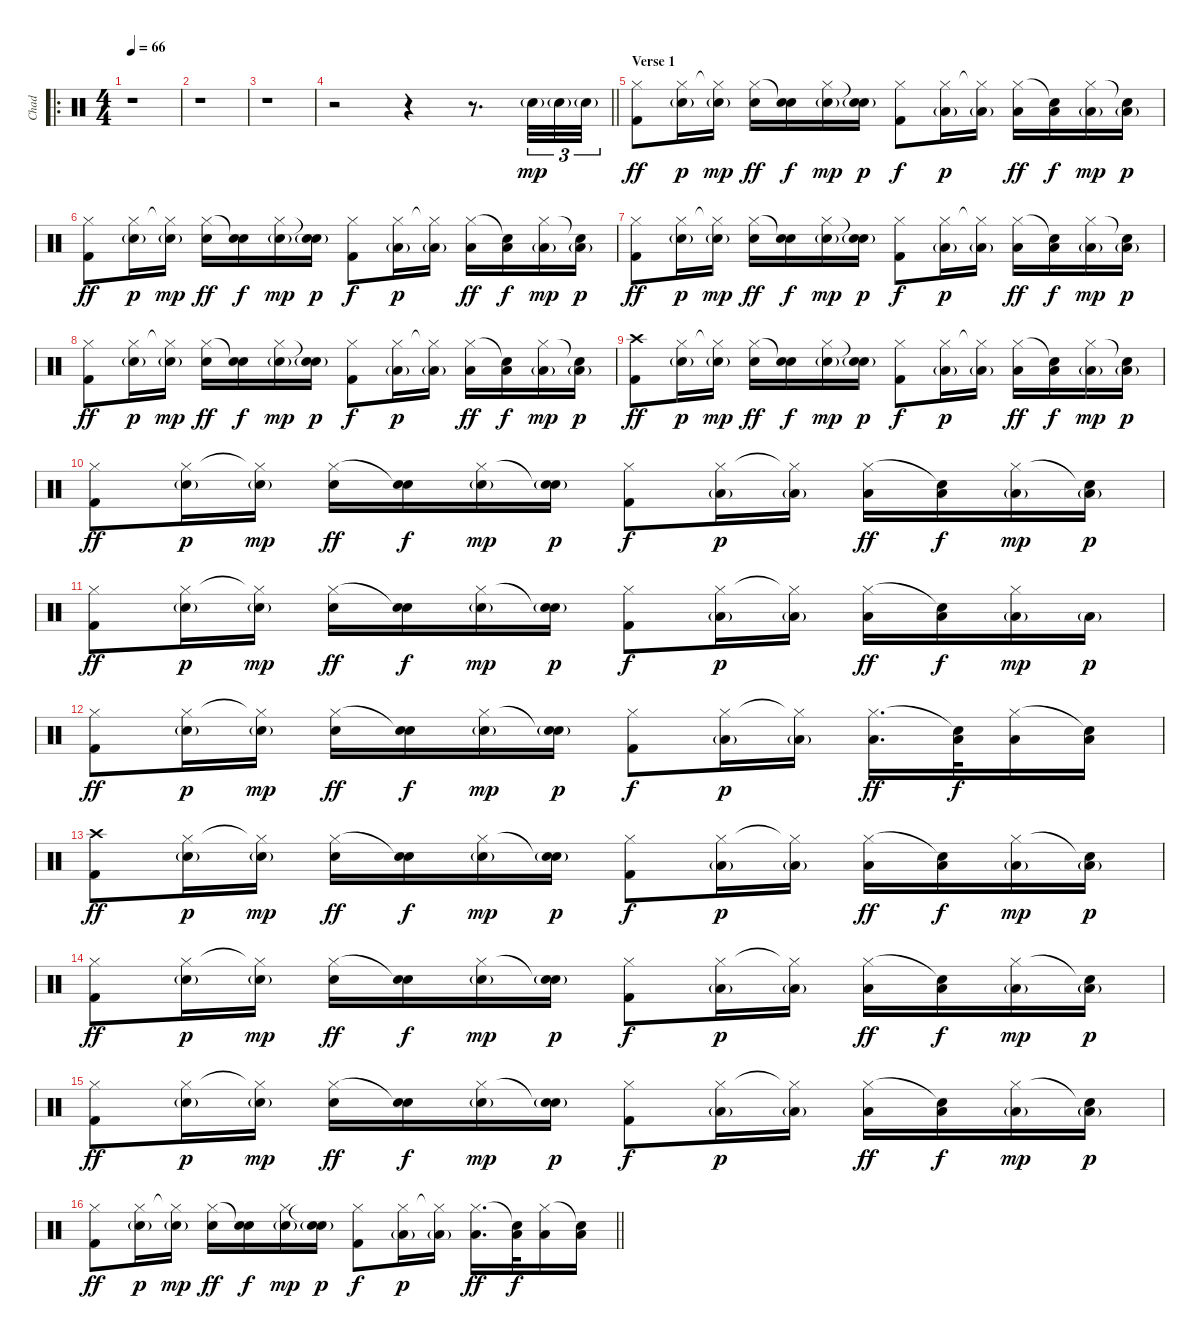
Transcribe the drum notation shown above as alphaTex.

\track ("Chad" "Chad") {instrument percussion}
\staff {score}
\articulation defaults
\ro
\ts (4 4)
\tempo 66
\clef neutral
\ks c
r.1{dy mp} |
r.1 |
r.1 |
\barLineRight lightlight
r.2 r.4 r.8{d} "Snare (hit) 2"{g}.32{tu (3 2)} "Snare (hit) 2"{g}.32{tu (3 2)} "Snare (hit) 2"{g}.32{tu (3 2)} |
\section ("" "Verse 1")
("Hi-Hat (closed)" "Kick (hit) 2").8{dy ff} ("Hi-Hat (closed)" "Snare (hit) 2"{g}).16{dy p} ("Hi-Hat (closed)"{t} "Snare (hit) 2"{g}).16{dy mp} ("Hi-Hat (closed)" "Snare (hit) 2").16{dy ff} ("Snare (hit)"{t} "Snare (hit) 2").16{dy f} ("Hi-Hat (closed)" "Snare (hit) 2"{g}).16{dy mp} ("Snare (hit)"{t} "Snare (hit) 2"{g}).16{dy p} ("Hi-Hat (closed)" "Kick (hit) 2").8{dy f} ("Hi-Hat (closed)" "Low Floor Tom (hit)"{g}).16{dy p} ("Hi-Hat (closed)"{t} "Low Floor Tom (hit)"{g}).16 ("Hi-Hat (closed)" "Low Floor Tom (hit)").16{dy ff} ("Snare (hit)"{t} "Low Floor Tom (hit)").16{dy f} ("Hi-Hat (closed)" "Low Floor Tom (hit)"{g}).16{dy mp} ("Snare (hit)"{t} "Low Floor Tom (hit)"{g}).16{dy p} |
("Hi-Hat (closed)" "Kick (hit) 2").8{dy ff} ("Hi-Hat (closed)" "Snare (hit) 2"{g}).16{dy p} ("Hi-Hat (closed)"{t} "Snare (hit) 2"{g}).16{dy mp} ("Hi-Hat (closed)" "Snare (hit) 2").16{dy ff} ("Snare (hit)"{t} "Snare (hit) 2").16{dy f} ("Hi-Hat (closed)" "Snare (hit) 2"{g}).16{dy mp} ("Snare (hit)"{t} "Snare (hit) 2"{g}).16{dy p} ("Hi-Hat (closed)" "Kick (hit) 2").8{dy f} ("Hi-Hat (closed)" "Low Floor Tom (hit)"{g}).16{dy p} ("Hi-Hat (closed)"{t} "Low Floor Tom (hit)"{g}).16 ("Hi-Hat (closed)" "Low Floor Tom (hit)").16{dy ff} ("Snare (hit)"{t} "Low Floor Tom (hit)").16{dy f} ("Hi-Hat (closed)" "Low Floor Tom (hit)"{g}).16{dy mp} ("Snare (hit)"{t} "Low Floor Tom (hit)"{g}).16{dy p} |
("Hi-Hat (closed)" "Kick (hit) 2").8{dy ff} ("Hi-Hat (closed)" "Snare (hit) 2"{g}).16{dy p} ("Hi-Hat (closed)"{t} "Snare (hit) 2"{g}).16{dy mp} ("Hi-Hat (closed)" "Snare (hit) 2").16{dy ff} ("Snare (hit)"{t} "Snare (hit) 2").16{dy f} ("Hi-Hat (closed)" "Snare (hit) 2"{g}).16{dy mp} ("Snare (hit)"{t} "Snare (hit) 2"{g}).16{dy p} ("Hi-Hat (closed)" "Kick (hit) 2").8{dy f} ("Hi-Hat (closed)" "Low Floor Tom (hit)"{g}).16{dy p} ("Hi-Hat (closed)"{t} "Low Floor Tom (hit)"{g}).16 ("Hi-Hat (closed)" "Low Floor Tom (hit)").16{dy ff} ("Snare (hit)"{t} "Low Floor Tom (hit)").16{dy f} ("Hi-Hat (closed)" "Low Floor Tom (hit)"{g}).16{dy mp} ("Snare (hit)"{t} "Low Floor Tom (hit)"{g}).16{dy p} |
("Hi-Hat (closed)" "Kick (hit) 2").8{dy ff} ("Hi-Hat (closed)" "Snare (hit) 2"{g}).16{dy p} ("Hi-Hat (closed)"{t} "Snare (hit) 2"{g}).16{dy mp} ("Hi-Hat (closed)" "Snare (hit) 2").16{dy ff} ("Snare (hit)"{t} "Snare (hit) 2").16{dy f} ("Hi-Hat (closed)" "Snare (hit) 2"{g}).16{dy mp} ("Snare (hit)"{t} "Snare (hit) 2"{g}).16{dy p} ("Hi-Hat (closed)" "Kick (hit) 2").8{dy f} ("Hi-Hat (closed)" "Low Floor Tom (hit)"{g}).16{dy p} ("Hi-Hat (closed)"{t} "Low Floor Tom (hit)"{g}).16 ("Hi-Hat (closed)" "Low Floor Tom (hit)").16{dy ff} ("Snare (hit)"{t} "Low Floor Tom (hit)").16{dy f} ("Hi-Hat (closed)" "Low Floor Tom (hit)"{g}).16{dy mp} ("Snare (hit)"{t} "Low Floor Tom (hit)"{g}).16{dy p} |
("Crash high (hit)" "Kick (hit) 2").8{dy ff} ("Hi-Hat (closed)" "Snare (hit) 2"{g}).16{dy p} ("Hi-Hat (closed)"{t} "Snare (hit) 2"{g}).16{dy mp} ("Hi-Hat (closed)" "Snare (hit) 2").16{dy ff} ("Snare (hit)"{t} "Snare (hit) 2").16{dy f} ("Hi-Hat (closed)" "Snare (hit) 2"{g}).16{dy mp} ("Snare (hit)"{t} "Snare (hit) 2"{g}).16{dy p} ("Hi-Hat (closed)" "Kick (hit) 2").8{dy f} ("Hi-Hat (closed)" "Low Floor Tom (hit)"{g}).16{dy p} ("Hi-Hat (closed)"{t} "Low Floor Tom (hit)"{g}).16 ("Hi-Hat (closed)" "Low Floor Tom (hit)").16{dy ff} ("Snare (hit)"{t} "Low Floor Tom (hit)").16{dy f} ("Hi-Hat (closed)" "Low Floor Tom (hit)"{g}).16{dy mp} ("Snare (hit)"{t} "Low Floor Tom (hit)"{g}).16{dy p} |
("Hi-Hat (closed)" "Kick (hit) 2").8{dy ff} ("Hi-Hat (closed)" "Snare (hit) 2"{g}).16{dy p} ("Hi-Hat (closed)"{t} "Snare (hit) 2"{g}).16{dy mp} ("Hi-Hat (closed)" "Snare (hit) 2").16{dy ff} ("Snare (hit)"{t} "Snare (hit) 2").16{dy f} ("Hi-Hat (closed)" "Snare (hit) 2"{g}).16{dy mp} ("Snare (hit)"{t} "Snare (hit) 2"{g}).16{dy p} ("Hi-Hat (closed)" "Kick (hit) 2").8{dy f} ("Hi-Hat (closed)" "Low Floor Tom (hit)"{g}).16{dy p} ("Hi-Hat (closed)"{t} "Low Floor Tom (hit)"{g}).16 ("Hi-Hat (closed)" "Low Floor Tom (hit)").16{dy ff} ("Snare (hit)"{t} "Low Floor Tom (hit)").16{dy f} ("Hi-Hat (closed)" "Low Floor Tom (hit)"{g}).16{dy mp} ("Snare (hit)"{t} "Low Floor Tom (hit)"{g}).16{dy p} |
("Hi-Hat (closed)" "Kick (hit) 2").8{dy ff} ("Hi-Hat (closed)" "Snare (hit) 2"{g}).16{dy p} ("Hi-Hat (closed)"{t} "Snare (hit) 2"{g}).16{dy mp} ("Hi-Hat (closed)" "Snare (hit) 2").16{dy ff} ("Snare (hit)"{t} "Snare (hit) 2").16{dy f} ("Hi-Hat (closed)" "Snare (hit) 2"{g}).16{dy mp} ("Snare (hit)"{t} "Snare (hit) 2"{g}).16{dy p} ("Hi-Hat (closed)" "Kick (hit) 2").8{dy f} ("Hi-Hat (closed)" "Low Floor Tom (hit)"{g}).16{dy p} ("Hi-Hat (closed)"{t} "Low Floor Tom (hit)"{g}).16 ("Hi-Hat (closed)" "Low Floor Tom (hit)").16{dy ff} ("Snare (hit)"{t} "Low Floor Tom (hit)").16{dy f} ("Hi-Hat (closed)" "Low Floor Tom (hit)"{g}).16{dy mp} "Low Floor Tom (hit)"{g}.16{dy p} |
("Hi-Hat (closed)" "Kick (hit) 2").8{dy ff} ("Hi-Hat (closed)" "Snare (hit) 2"{g}).16{dy p} ("Hi-Hat (closed)"{t} "Snare (hit) 2"{g}).16{dy mp} ("Hi-Hat (closed)" "Snare (hit) 2").16{dy ff} ("Snare (hit)"{t} "Snare (hit) 2").16{dy f} ("Hi-Hat (closed)" "Snare (hit) 2"{g}).16{dy mp} ("Snare (hit)"{t} "Snare (hit) 2"{g}).16{dy p} ("Hi-Hat (closed)" "Kick (hit) 2").8{dy f} ("Hi-Hat (closed)" "Low Floor Tom (hit)"{g}).16{dy p} ("Hi-Hat (closed)"{t} "Low Floor Tom (hit)"{g}).16 ("Hi-Hat (closed)" "Low Floor Tom (hit)").16{d dy ff} ("Snare (hit)"{t} "Low Floor Tom (hit)").32{dy f} ("Hi-Hat (closed)" "Low Floor Tom (hit)").16 ("Snare (hit)"{t} "Low Floor Tom (hit)").16 |
("Crash high (hit)" "Kick (hit) 2").8{dy ff} ("Hi-Hat (closed)" "Snare (hit) 2"{g}).16{dy p} ("Hi-Hat (closed)"{t} "Snare (hit) 2"{g}).16{dy mp} ("Hi-Hat (closed)" "Snare (hit) 2").16{dy ff} ("Snare (hit)"{t} "Snare (hit) 2").16{dy f} ("Hi-Hat (closed)" "Snare (hit) 2"{g}).16{dy mp} ("Snare (hit)"{t} "Snare (hit) 2"{g}).16{dy p} ("Hi-Hat (closed)" "Kick (hit) 2").8{dy f} ("Hi-Hat (closed)" "Low Floor Tom (hit)"{g}).16{dy p} ("Hi-Hat (closed)"{t} "Low Floor Tom (hit)"{g}).16 ("Hi-Hat (closed)" "Low Floor Tom (hit)").16{dy ff} ("Snare (hit)"{t} "Low Floor Tom (hit)").16{dy f} ("Hi-Hat (closed)" "Low Floor Tom (hit)"{g}).16{dy mp} ("Snare (hit)"{t} "Low Floor Tom (hit)"{g}).16{dy p} |
("Hi-Hat (closed)" "Kick (hit) 2").8{dy ff} ("Hi-Hat (closed)" "Snare (hit) 2"{g}).16{dy p} ("Hi-Hat (closed)"{t} "Snare (hit) 2"{g}).16{dy mp} ("Hi-Hat (closed)" "Snare (hit) 2").16{dy ff} ("Snare (hit)"{t} "Snare (hit) 2").16{dy f} ("Hi-Hat (closed)" "Snare (hit) 2"{g}).16{dy mp} ("Snare (hit)"{t} "Snare (hit) 2"{g}).16{dy p} ("Hi-Hat (closed)" "Kick (hit) 2").8{dy f} ("Hi-Hat (closed)" "Low Floor Tom (hit)"{g}).16{dy p} ("Hi-Hat (closed)"{t} "Low Floor Tom (hit)"{g}).16 ("Hi-Hat (closed)" "Low Floor Tom (hit)").16{dy ff} ("Snare (hit)"{t} "Low Floor Tom (hit)").16{dy f} ("Hi-Hat (closed)" "Low Floor Tom (hit)"{g}).16{dy mp} ("Snare (hit)"{t} "Low Floor Tom (hit)"{g}).16{dy p} |
("Hi-Hat (closed)" "Kick (hit) 2").8{dy ff} ("Hi-Hat (closed)" "Snare (hit) 2"{g}).16{dy p} ("Hi-Hat (closed)"{t} "Snare (hit) 2"{g}).16{dy mp} ("Hi-Hat (closed)" "Snare (hit) 2").16{dy ff} ("Snare (hit)"{t} "Snare (hit) 2").16{dy f} ("Hi-Hat (closed)" "Snare (hit) 2"{g}).16{dy mp} ("Snare (hit)"{t} "Snare (hit) 2"{g}).16{dy p} ("Hi-Hat (closed)" "Kick (hit) 2").8{dy f} ("Hi-Hat (closed)" "Low Floor Tom (hit)"{g}).16{dy p} ("Hi-Hat (closed)"{t} "Low Floor Tom (hit)"{g}).16 ("Hi-Hat (closed)" "Low Floor Tom (hit)").16{dy ff} ("Snare (hit)"{t} "Low Floor Tom (hit)").16{dy f} ("Hi-Hat (closed)" "Low Floor Tom (hit)"{g}).16{dy mp} ("Snare (hit)"{t} "Low Floor Tom (hit)"{g}).16{dy p} |
\barLineRight lightlight
("Hi-Hat (closed)" "Kick (hit) 2").8{dy ff} ("Hi-Hat (closed)" "Snare (hit) 2"{g}).16{dy p} ("Hi-Hat (closed)"{t} "Snare (hit) 2"{g}).16{dy mp} ("Hi-Hat (closed)" "Snare (hit) 2").16{dy ff} ("Snare (hit)"{t} "Snare (hit) 2").16{dy f} ("Hi-Hat (closed)" "Snare (hit) 2"{g}).16{dy mp} ("Snare (hit)"{t} "Snare (hit) 2"{g}).16{dy p} ("Hi-Hat (closed)" "Kick (hit) 2").8{dy f} ("Hi-Hat (closed)" "Low Floor Tom (hit)"{g}).16{dy p} ("Hi-Hat (closed)"{t} "Low Floor Tom (hit)"{g}).16 ("Hi-Hat (closed)" "Low Floor Tom (hit)").16{d dy ff} ("Snare (hit)"{t} "Low Floor Tom (hit)").32{dy f} ("Hi-Hat (closed)" "Low Floor Tom (hit)").16 ("Snare (hit)"{t} "Low Floor Tom (hit)").16
